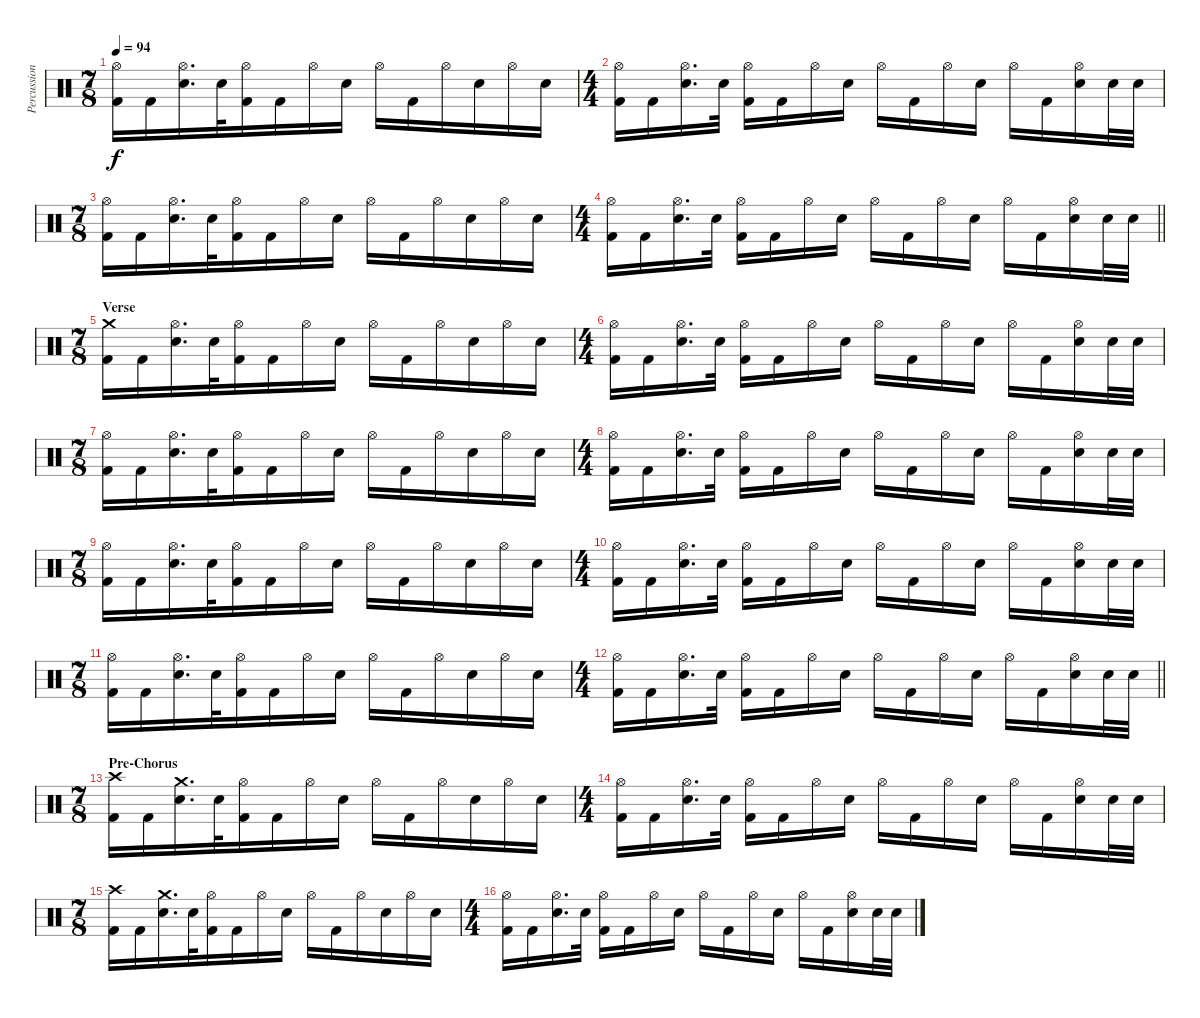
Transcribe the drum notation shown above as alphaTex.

\track ("Percussion" "Percussion") {instrument percussion}
\staff {score}
\articulation defaults
\ts (7 8)
\tempo 94
\clef neutral
\ks c
("Hi-Hat (open)" "Kick (hit) 2").16{dy f} "Kick (hit) 2".16 ("Hi-Hat (open)" "Electric Snare (hit)").16{d} "Electric Snare (hit)".32 ("Hi-Hat (open)" "Kick (hit) 2").16 "Kick (hit) 2".16 "Hi-Hat (open)".16 "Electric Snare (hit)".16 "Hi-Hat (open)".16 "Kick (hit) 2".16 "Hi-Hat (open)".16 "Electric Snare (hit)".16 "Hi-Hat (open)".16 "Electric Snare (hit)".16 |
\ts (4 4)
("Hi-Hat (open)" "Kick (hit) 2").16 "Kick (hit) 2".16 ("Hi-Hat (open)" "Electric Snare (hit)").16{d} "Electric Snare (hit)".32 ("Hi-Hat (open)" "Kick (hit) 2").16 "Kick (hit) 2".16 "Hi-Hat (open)".16 "Electric Snare (hit)".16 "Hi-Hat (open)".16 "Kick (hit) 2".16 "Hi-Hat (open)".16 "Electric Snare (hit)".16 "Hi-Hat (open)".16 "Kick (hit) 2".16 ("Hi-Hat (open)" "Electric Snare (hit)").16 "Electric Snare (hit)".32 "Electric Snare (hit)".32 |
\ts (7 8)
("Hi-Hat (open)" "Kick (hit) 2").16 "Kick (hit) 2".16 ("Hi-Hat (open)" "Electric Snare (hit)").16{d} "Electric Snare (hit)".32 ("Hi-Hat (open)" "Kick (hit) 2").16 "Kick (hit) 2".16 "Hi-Hat (open)".16 "Electric Snare (hit)".16 "Hi-Hat (open)".16 "Kick (hit) 2".16 "Hi-Hat (open)".16 "Electric Snare (hit)".16 "Hi-Hat (open)".16 "Electric Snare (hit)".16 |
\ts (4 4)
\barLineRight lightlight
("Hi-Hat (open)" "Kick (hit) 2").16 "Kick (hit) 2".16 ("Hi-Hat (open)" "Electric Snare (hit)").16{d} "Electric Snare (hit)".32 ("Hi-Hat (open)" "Kick (hit) 2").16 "Kick (hit) 2".16 "Hi-Hat (open)".16 "Electric Snare (hit)".16 "Hi-Hat (open)".16 "Kick (hit) 2".16 "Hi-Hat (open)".16 "Electric Snare (hit)".16 "Hi-Hat (open)".16 "Kick (hit) 2".16 ("Hi-Hat (open)" "Electric Snare (hit)").16 "Electric Snare (hit)".32 "Electric Snare (hit)".32 |
\ts (7 8)
\section ("" "Verse")
("Crash medium (hit)" "Kick (hit) 2").16 "Kick (hit) 2".16 ("Hi-Hat (open)" "Electric Snare (hit)").16{d} "Electric Snare (hit)".32 ("Hi-Hat (open)" "Kick (hit) 2").16 "Kick (hit) 2".16 "Hi-Hat (open)".16 "Electric Snare (hit)".16 "Hi-Hat (open)".16 "Kick (hit) 2".16 "Hi-Hat (open)".16 "Electric Snare (hit)".16 "Hi-Hat (open)".16 "Electric Snare (hit)".16 |
\ts (4 4)
("Hi-Hat (open)" "Kick (hit) 2").16 "Kick (hit) 2".16 ("Hi-Hat (open)" "Electric Snare (hit)").16{d} "Electric Snare (hit)".32 ("Hi-Hat (open)" "Kick (hit) 2").16 "Kick (hit) 2".16 "Hi-Hat (open)".16 "Electric Snare (hit)".16 "Hi-Hat (open)".16 "Kick (hit) 2".16 "Hi-Hat (open)".16 "Electric Snare (hit)".16 "Hi-Hat (open)".16 "Kick (hit) 2".16 ("Hi-Hat (open)" "Electric Snare (hit)").16 "Electric Snare (hit)".32 "Electric Snare (hit)".32 |
\ts (7 8)
("Hi-Hat (open)" "Kick (hit) 2").16 "Kick (hit) 2".16 ("Hi-Hat (open)" "Electric Snare (hit)").16{d} "Electric Snare (hit)".32 ("Hi-Hat (open)" "Kick (hit) 2").16 "Kick (hit) 2".16 "Hi-Hat (open)".16 "Electric Snare (hit)".16 "Hi-Hat (open)".16 "Kick (hit) 2".16 "Hi-Hat (open)".16 "Electric Snare (hit)".16 "Hi-Hat (open)".16 "Electric Snare (hit)".16 |
\ts (4 4)
("Hi-Hat (open)" "Kick (hit) 2").16 "Kick (hit) 2".16 ("Hi-Hat (open)" "Electric Snare (hit)").16{d} "Electric Snare (hit)".32 ("Hi-Hat (open)" "Kick (hit) 2").16 "Kick (hit) 2".16 "Hi-Hat (open)".16 "Electric Snare (hit)".16 "Hi-Hat (open)".16 "Kick (hit) 2".16 "Hi-Hat (open)".16 "Electric Snare (hit)".16 "Hi-Hat (open)".16 "Kick (hit) 2".16 ("Hi-Hat (open)" "Electric Snare (hit)").16 "Electric Snare (hit)".32 "Electric Snare (hit)".32 |
\ts (7 8)
("Hi-Hat (open)" "Kick (hit) 2").16 "Kick (hit) 2".16 ("Hi-Hat (open)" "Electric Snare (hit)").16{d} "Electric Snare (hit)".32 ("Hi-Hat (open)" "Kick (hit) 2").16 "Kick (hit) 2".16 "Hi-Hat (open)".16 "Electric Snare (hit)".16 "Hi-Hat (open)".16 "Kick (hit) 2".16 "Hi-Hat (open)".16 "Electric Snare (hit)".16 "Hi-Hat (open)".16 "Electric Snare (hit)".16 |
\ts (4 4)
("Hi-Hat (open)" "Kick (hit) 2").16 "Kick (hit) 2".16 ("Hi-Hat (open)" "Electric Snare (hit)").16{d} "Electric Snare (hit)".32 ("Hi-Hat (open)" "Kick (hit) 2").16 "Kick (hit) 2".16 "Hi-Hat (open)".16 "Electric Snare (hit)".16 "Hi-Hat (open)".16 "Kick (hit) 2".16 "Hi-Hat (open)".16 "Electric Snare (hit)".16 "Hi-Hat (open)".16 "Kick (hit) 2".16 ("Hi-Hat (open)" "Electric Snare (hit)").16 "Electric Snare (hit)".32 "Electric Snare (hit)".32 |
\ts (7 8)
("Hi-Hat (open)" "Kick (hit) 2").16 "Kick (hit) 2".16 ("Hi-Hat (open)" "Electric Snare (hit)").16{d} "Electric Snare (hit)".32 ("Hi-Hat (open)" "Kick (hit) 2").16 "Kick (hit) 2".16 "Hi-Hat (open)".16 "Electric Snare (hit)".16 "Hi-Hat (open)".16 "Kick (hit) 2".16 "Hi-Hat (open)".16 "Electric Snare (hit)".16 "Hi-Hat (open)".16 "Electric Snare (hit)".16 |
\ts (4 4)
\barLineRight lightlight
("Hi-Hat (open)" "Kick (hit) 2").16 "Kick (hit) 2".16 ("Hi-Hat (open)" "Electric Snare (hit)").16{d} "Electric Snare (hit)".32 ("Hi-Hat (open)" "Kick (hit) 2").16 "Kick (hit) 2".16 "Hi-Hat (open)".16 "Electric Snare (hit)".16 "Hi-Hat (open)".16 "Kick (hit) 2".16 "Hi-Hat (open)".16 "Electric Snare (hit)".16 "Hi-Hat (open)".16 "Kick (hit) 2".16 ("Hi-Hat (open)" "Electric Snare (hit)").16 "Electric Snare (hit)".32 "Electric Snare (hit)".32 |
\ts (7 8)
\section ("" "Pre-Chorus")
("Crash high (hit)" "Kick (hit) 2").16 "Kick (hit) 2".16 ("Crash medium (hit)" "Electric Snare (hit)").16{d} "Electric Snare (hit)".32 ("Hi-Hat (open)" "Kick (hit) 2").16 "Kick (hit) 2".16 "Hi-Hat (open)".16 "Electric Snare (hit)".16 "Hi-Hat (open)".16 "Kick (hit) 2".16 "Hi-Hat (open)".16 "Electric Snare (hit)".16 "Hi-Hat (open)".16 "Electric Snare (hit)".16 |
\ts (4 4)
("Hi-Hat (open)" "Kick (hit) 2").16 "Kick (hit) 2".16 ("Hi-Hat (open)" "Electric Snare (hit)").16{d} "Electric Snare (hit)".32 ("Hi-Hat (open)" "Kick (hit) 2").16 "Kick (hit) 2".16 "Hi-Hat (open)".16 "Electric Snare (hit)".16 "Hi-Hat (open)".16 "Kick (hit) 2".16 "Hi-Hat (open)".16 "Electric Snare (hit)".16 "Hi-Hat (open)".16 "Kick (hit) 2".16 ("Hi-Hat (open)" "Electric Snare (hit)").16 "Electric Snare (hit)".32 "Electric Snare (hit)".32 |
\ts (7 8)
("Crash high (hit)" "Kick (hit) 2").16 "Kick (hit) 2".16 ("Crash medium (hit)" "Electric Snare (hit)").16{d} "Electric Snare (hit)".32 ("Hi-Hat (open)" "Kick (hit) 2").16 "Kick (hit) 2".16 "Hi-Hat (open)".16 "Electric Snare (hit)".16 "Hi-Hat (open)".16 "Kick (hit) 2".16 "Hi-Hat (open)".16 "Electric Snare (hit)".16 "Hi-Hat (open)".16 "Electric Snare (hit)".16 |
\ts (4 4)
("Hi-Hat (open)" "Kick (hit) 2").16 "Kick (hit) 2".16 ("Hi-Hat (open)" "Electric Snare (hit)").16{d} "Electric Snare (hit)".32 ("Hi-Hat (open)" "Kick (hit) 2").16 "Kick (hit) 2".16 "Hi-Hat (open)".16 "Electric Snare (hit)".16 "Hi-Hat (open)".16 "Kick (hit) 2".16 "Hi-Hat (open)".16 "Electric Snare (hit)".16 "Hi-Hat (open)".16 "Kick (hit) 2".16 ("Hi-Hat (open)" "Electric Snare (hit)").16 "Electric Snare (hit)".32 "Electric Snare (hit)".32
